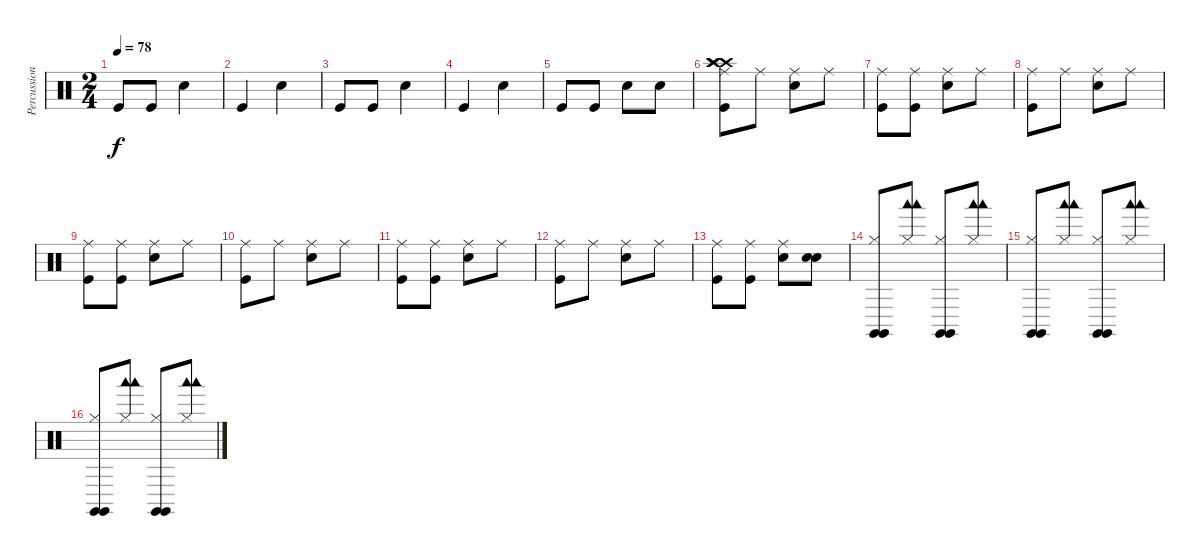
\track ("Percussion" "Percussion") {instrument percussion}
\staff {score}
\articulation defaults
\ts (2 4)
\tempo 78
\clef neutral
\ks c "Kick (hit)".8{dy f} "Kick (hit)".8 "Metronome (bell)".4
|
"Kick (hit)".4 "Metronome (bell)".4 |
"Kick (hit)".8 "Kick (hit)".8 "Metronome (bell)".4 |
"Kick (hit)".4 "Metronome (bell)".4 |
"Kick (hit)".8 "Kick (hit)".8 "Metronome (bell)".8 "Metronome (bell)".8 |
("Ride (middle)" "Kick (hit)" "Crash high (hit)" "Crash high (hit)" "Crash high (hit)" "Crash high (hit)").8 "Ride (middle)".8 ("Ride (middle)" "Metronome (bell)").8 "Ride (middle)".8 |
("Ride (middle)" "Kick (hit)").8 ("Ride (middle)" "Kick (hit)").8 ("Ride (middle)" "Metronome (bell)").8 "Ride (middle)".8 |
("Ride (middle)" "Kick (hit)").8 "Ride (middle)".8 ("Ride (middle)" "Metronome (bell)").8 "Ride (middle)".8 |
("Ride (middle)" "Kick (hit)").8 ("Ride (middle)" "Kick (hit)").8 ("Ride (middle)" "Metronome (bell)").8 "Ride (middle)".8 |
("Ride (middle)" "Kick (hit)").8 "Ride (middle)".8 ("Ride (middle)" "Metronome (bell)").8 "Ride (middle)".8 |
("Ride (middle)" "Kick (hit)").8 ("Ride (middle)" "Kick (hit)").8 ("Ride (middle)" "Metronome (bell)").8 "Ride (middle)".8 |
("Ride (middle)" "Kick (hit)").8 "Ride (middle)".8 ("Ride (middle)" "Metronome (bell)").8 "Ride (middle)".8 |
("Ride (middle)" "Kick (hit)").8 ("Ride (middle)" "Kick (hit)").8 ("Ride (middle)" "Metronome (bell)").8 ("Snare (hit)" "Metronome (bell)").8 |
("Hi-Hat (closed)" "Claves (hit)" "Claves (hit)").8 ("Hi-Hat (closed)" "Woodblock low (hit)" "Woodblock low (hit)").8 ("Hi-Hat (closed)" "Claves (hit)" "Claves (hit)").8 ("Hi-Hat (closed)" "Woodblock low (hit)" "Woodblock low (hit)").8 |
("Hi-Hat (closed)" "Claves (hit)" "Claves (hit)").8 ("Hi-Hat (closed)" "Woodblock low (hit)" "Woodblock low (hit)").8 ("Hi-Hat (closed)" "Claves (hit)" "Claves (hit)").8 ("Hi-Hat (closed)" "Woodblock low (hit)" "Woodblock low (hit)").8 |
("Hi-Hat (closed)" "Claves (hit)" "Claves (hit)").8 ("Hi-Hat (closed)" "Woodblock low (hit)" "Woodblock low (hit)").8 ("Hi-Hat (closed)" "Claves (hit)" "Claves (hit)").8 ("Hi-Hat (closed)" "Woodblock low (hit)" "Woodblock low (hit)").8
